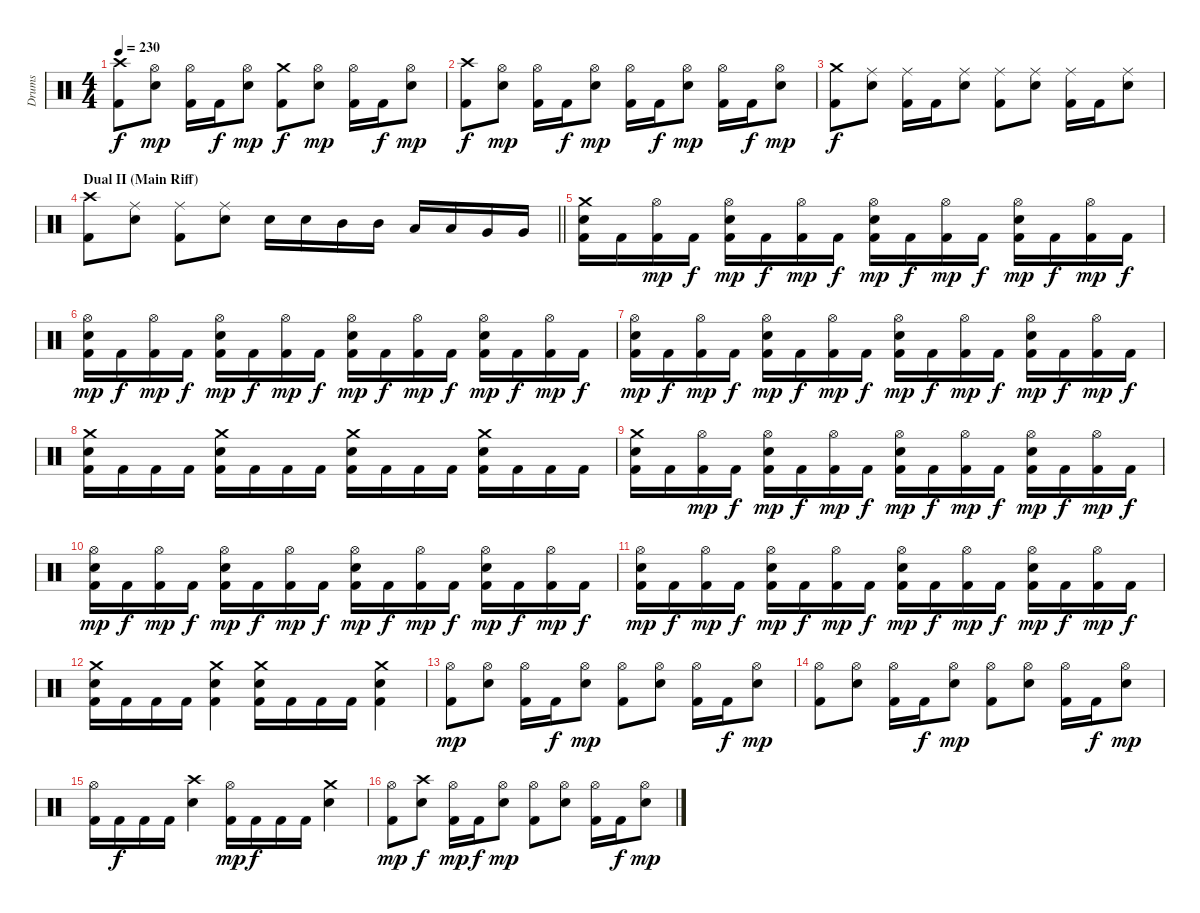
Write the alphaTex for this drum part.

\track ("Drums" "Drums") {instrument percussion}
\staff {score}
\articulation defaults
\ts (4 4)
\tempo 230
\clef neutral
\ks c
("Crash high (hit)" "Kick (hit) 2").8{dy f} ("Hi-Hat (open)" "Snare (hit) 2").8{dy mp} ("Hi-Hat (open)" "Kick (hit) 2").16 "Kick (hit) 2".16{dy f} ("Hi-Hat (open)" "Snare (hit) 2").8{dy mp} ("Crash medium (hit)" "Kick (hit) 2").8{dy f} ("Hi-Hat (open)" "Snare (hit) 2").8{dy mp} ("Hi-Hat (open)" "Kick (hit) 2").16 "Kick (hit) 2".16{dy f} ("Hi-Hat (open)" "Snare (hit) 2").8{dy mp} |
("Crash high (hit)" "Kick (hit) 2").8{dy f} ("Hi-Hat (open)" "Snare (hit) 2").8{dy mp} ("Hi-Hat (open)" "Kick (hit) 2").16 "Kick (hit) 2".16{dy f} ("Hi-Hat (open)" "Snare (hit) 2").8{dy mp} ("Hi-Hat (open)" "Kick (hit) 2").16 "Kick (hit) 2".16{dy f} ("Hi-Hat (open)" "Snare (hit) 2").8{dy mp} ("Hi-Hat (open)" "Kick (hit) 2").16 "Kick (hit) 2".16{dy f} ("Hi-Hat (open)" "Snare (hit) 2").8{dy mp} |
("Crash medium (hit)" "Kick (hit) 2").8{dy f} ("Ride (middle)" "Snare (hit) 2").8 ("Ride (middle)" "Kick (hit) 2").16 "Kick (hit) 2".16 ("Ride (middle)" "Snare (hit) 2").8 ("Ride (middle)" "Kick (hit) 2").8 ("Ride (middle)" "Snare (hit) 2").8 ("Ride (middle)" "Kick (hit) 2").16 "Kick (hit) 2".16 ("Ride (middle)" "Snare (hit) 2").8 |
\section ("" "Dual II (Main Riff)")
\barLineRight lightlight
("Crash high (hit)" "Kick (hit) 2").8 ("Ride (middle)" "Snare (hit) 2").8 ("Ride (middle)" "Kick (hit) 2").8 ("Ride (middle)" "Snare (hit) 2").8 "Snare (hit) 2".16 "Snare (hit) 2".16 "Mid Tom (hit)".16 "Mid Tom (hit)".16 "Low Tom (hit)".16 "Low Tom (hit)".16 "Very Low Tom (hit)".16 "Very Low Tom (hit)".16 |
("Crash medium (hit)" "Snare (hit) 2" "Kick (hit) 2").16 "Kick (hit) 2".16 ("Hi-Hat (open)" "Kick (hit) 2").16{dy mp} "Kick (hit) 2".16{dy f} ("Hi-Hat (open)" "Snare (hit) 2" "Kick (hit) 2").16{dy mp} "Kick (hit) 2".16{dy f} ("Hi-Hat (open)" "Kick (hit) 2").16{dy mp} "Kick (hit) 2".16{dy f} ("Hi-Hat (open)" "Snare (hit) 2" "Kick (hit) 2").16{dy mp} "Kick (hit) 2".16{dy f} ("Hi-Hat (open)" "Kick (hit) 2").16{dy mp} "Kick (hit) 2".16{dy f} ("Hi-Hat (open)" "Snare (hit) 2" "Kick (hit) 2").16{dy mp} "Kick (hit) 2".16{dy f} ("Hi-Hat (open)" "Kick (hit) 2").16{dy mp} "Kick (hit) 2".16{dy f} |
("Hi-Hat (open)" "Snare (hit) 2" "Kick (hit) 2").16{dy mp} "Kick (hit) 2".16{dy f} ("Hi-Hat (open)" "Kick (hit) 2").16{dy mp} "Kick (hit) 2".16{dy f} ("Hi-Hat (open)" "Snare (hit) 2" "Kick (hit) 2").16{dy mp} "Kick (hit) 2".16{dy f} ("Hi-Hat (open)" "Kick (hit) 2").16{dy mp} "Kick (hit) 2".16{dy f} ("Hi-Hat (open)" "Snare (hit) 2" "Kick (hit) 2").16{dy mp} "Kick (hit) 2".16{dy f} ("Hi-Hat (open)" "Kick (hit) 2").16{dy mp} "Kick (hit) 2".16{dy f} ("Hi-Hat (open)" "Snare (hit) 2" "Kick (hit) 2").16{dy mp} "Kick (hit) 2".16{dy f} ("Hi-Hat (open)" "Kick (hit) 2").16{dy mp} "Kick (hit) 2".16{dy f} |
("Hi-Hat (open)" "Snare (hit) 2" "Kick (hit) 2").16{dy mp} "Kick (hit) 2".16{dy f} ("Hi-Hat (open)" "Kick (hit) 2").16{dy mp} "Kick (hit) 2".16{dy f} ("Hi-Hat (open)" "Snare (hit) 2" "Kick (hit) 2").16{dy mp} "Kick (hit) 2".16{dy f} ("Hi-Hat (open)" "Kick (hit) 2").16{dy mp} "Kick (hit) 2".16{dy f} ("Hi-Hat (open)" "Snare (hit) 2" "Kick (hit) 2").16{dy mp} "Kick (hit) 2".16{dy f} ("Hi-Hat (open)" "Kick (hit) 2").16{dy mp} "Kick (hit) 2".16{dy f} ("Hi-Hat (open)" "Snare (hit) 2" "Kick (hit) 2").16{dy mp} "Kick (hit) 2".16{dy f} ("Hi-Hat (open)" "Kick (hit) 2").16{dy mp} "Kick (hit) 2".16{dy f} |
("Crash medium (hit)" "Snare (hit) 2" "Kick (hit) 2").16 "Kick (hit) 2".16 "Kick (hit) 2".16 "Kick (hit) 2".16 ("Crash medium (hit)" "Snare (hit) 2" "Kick (hit) 2").16 "Kick (hit) 2".16 "Kick (hit) 2".16 "Kick (hit) 2".16 ("Crash medium (hit)" "Snare (hit) 2" "Kick (hit) 2").16 "Kick (hit) 2".16 "Kick (hit) 2".16 "Kick (hit) 2".16 ("Crash medium (hit)" "Snare (hit) 2" "Kick (hit) 2").16 "Kick (hit) 2".16 "Kick (hit) 2".16 "Kick (hit) 2".16 |
("Crash medium (hit)" "Snare (hit) 2" "Kick (hit) 2").16 "Kick (hit) 2".16 ("Hi-Hat (open)" "Kick (hit) 2").16{dy mp} "Kick (hit) 2".16{dy f} ("Hi-Hat (open)" "Snare (hit) 2" "Kick (hit) 2").16{dy mp} "Kick (hit) 2".16{dy f} ("Hi-Hat (open)" "Kick (hit) 2").16{dy mp} "Kick (hit) 2".16{dy f} ("Hi-Hat (open)" "Snare (hit) 2" "Kick (hit) 2").16{dy mp} "Kick (hit) 2".16{dy f} ("Hi-Hat (open)" "Kick (hit) 2").16{dy mp} "Kick (hit) 2".16{dy f} ("Hi-Hat (open)" "Snare (hit) 2" "Kick (hit) 2").16{dy mp} "Kick (hit) 2".16{dy f} ("Hi-Hat (open)" "Kick (hit) 2").16{dy mp} "Kick (hit) 2".16{dy f} |
("Hi-Hat (open)" "Snare (hit) 2" "Kick (hit) 2").16{dy mp} "Kick (hit) 2".16{dy f} ("Hi-Hat (open)" "Kick (hit) 2").16{dy mp} "Kick (hit) 2".16{dy f} ("Hi-Hat (open)" "Snare (hit) 2" "Kick (hit) 2").16{dy mp} "Kick (hit) 2".16{dy f} ("Hi-Hat (open)" "Kick (hit) 2").16{dy mp} "Kick (hit) 2".16{dy f} ("Hi-Hat (open)" "Snare (hit) 2" "Kick (hit) 2").16{dy mp} "Kick (hit) 2".16{dy f} ("Hi-Hat (open)" "Kick (hit) 2").16{dy mp} "Kick (hit) 2".16{dy f} ("Hi-Hat (open)" "Snare (hit) 2" "Kick (hit) 2").16{dy mp} "Kick (hit) 2".16{dy f} ("Hi-Hat (open)" "Kick (hit) 2").16{dy mp} "Kick (hit) 2".16{dy f} |
("Hi-Hat (open)" "Snare (hit) 2" "Kick (hit) 2").16{dy mp} "Kick (hit) 2".16{dy f} ("Hi-Hat (open)" "Kick (hit) 2").16{dy mp} "Kick (hit) 2".16{dy f} ("Hi-Hat (open)" "Snare (hit) 2" "Kick (hit) 2").16{dy mp} "Kick (hit) 2".16{dy f} ("Hi-Hat (open)" "Kick (hit) 2").16{dy mp} "Kick (hit) 2".16{dy f} ("Hi-Hat (open)" "Snare (hit) 2" "Kick (hit) 2").16{dy mp} "Kick (hit) 2".16{dy f} ("Hi-Hat (open)" "Kick (hit) 2").16{dy mp} "Kick (hit) 2".16{dy f} ("Hi-Hat (open)" "Snare (hit) 2" "Kick (hit) 2").16{dy mp} "Kick (hit) 2".16{dy f} ("Hi-Hat (open)" "Kick (hit) 2").16{dy mp} "Kick (hit) 2".16{dy f} |
("Crash medium (hit)" "Snare (hit) 2" "Kick (hit) 2").16 "Kick (hit) 2".16 "Kick (hit) 2".16 "Kick (hit) 2".16 ("Crash medium (hit)" "Snare (hit) 2" "Kick (hit) 2").4 ("Crash medium (hit)" "Snare (hit) 2" "Kick (hit) 2").16 "Kick (hit) 2".16 "Kick (hit) 2".16 "Kick (hit) 2".16 ("Crash medium (hit)" "Snare (hit) 2" "Kick (hit) 2").4 |
("Hi-Hat (open)" "Kick (hit) 2").8{dy mp} ("Hi-Hat (open)" "Snare (hit) 2").8 ("Hi-Hat (open)" "Kick (hit) 2").16 "Kick (hit) 2".16{dy f} ("Hi-Hat (open)" "Snare (hit) 2").8{dy mp} ("Hi-Hat (open)" "Kick (hit) 2").8 ("Hi-Hat (open)" "Snare (hit) 2").8 ("Hi-Hat (open)" "Kick (hit) 2").16 "Kick (hit) 2".16{dy f} ("Hi-Hat (open)" "Snare (hit) 2").8{dy mp} |
("Hi-Hat (open)" "Kick (hit) 2").8 ("Hi-Hat (open)" "Snare (hit) 2").8 ("Hi-Hat (open)" "Kick (hit) 2").16 "Kick (hit) 2".16{dy f} ("Hi-Hat (open)" "Snare (hit) 2").8{dy mp} ("Hi-Hat (open)" "Kick (hit) 2").8 ("Hi-Hat (open)" "Snare (hit) 2").8 ("Hi-Hat (open)" "Kick (hit) 2").16 "Kick (hit) 2".16{dy f} ("Hi-Hat (open)" "Snare (hit) 2").8{dy mp} |
("Hi-Hat (open)" "Kick (hit) 2").16 "Kick (hit) 2".16{dy f} "Kick (hit) 2".16 "Kick (hit) 2".16 ("Crash high (hit)" "Snare (hit) 2").4 ("Hi-Hat (open)" "Kick (hit) 2").16{dy mp} "Kick (hit) 2".16{dy f} "Kick (hit) 2".16 "Kick (hit) 2".16 ("Crash medium (hit)" "Snare (hit) 2").4 |
("Hi-Hat (open)" "Kick (hit) 2").8{dy mp} ("Crash high (hit)" "Snare (hit) 2").8{dy f} ("Hi-Hat (open)" "Kick (hit) 2").16{dy mp} "Kick (hit) 2".16{dy f} ("Hi-Hat (open)" "Snare (hit) 2").8{dy mp} ("Hi-Hat (open)" "Kick (hit) 2").8 ("Hi-Hat (open)" "Snare (hit) 2").8 ("Hi-Hat (open)" "Kick (hit) 2").16 "Kick (hit) 2".16{dy f} ("Hi-Hat (open)" "Snare (hit) 2").8{dy mp}
